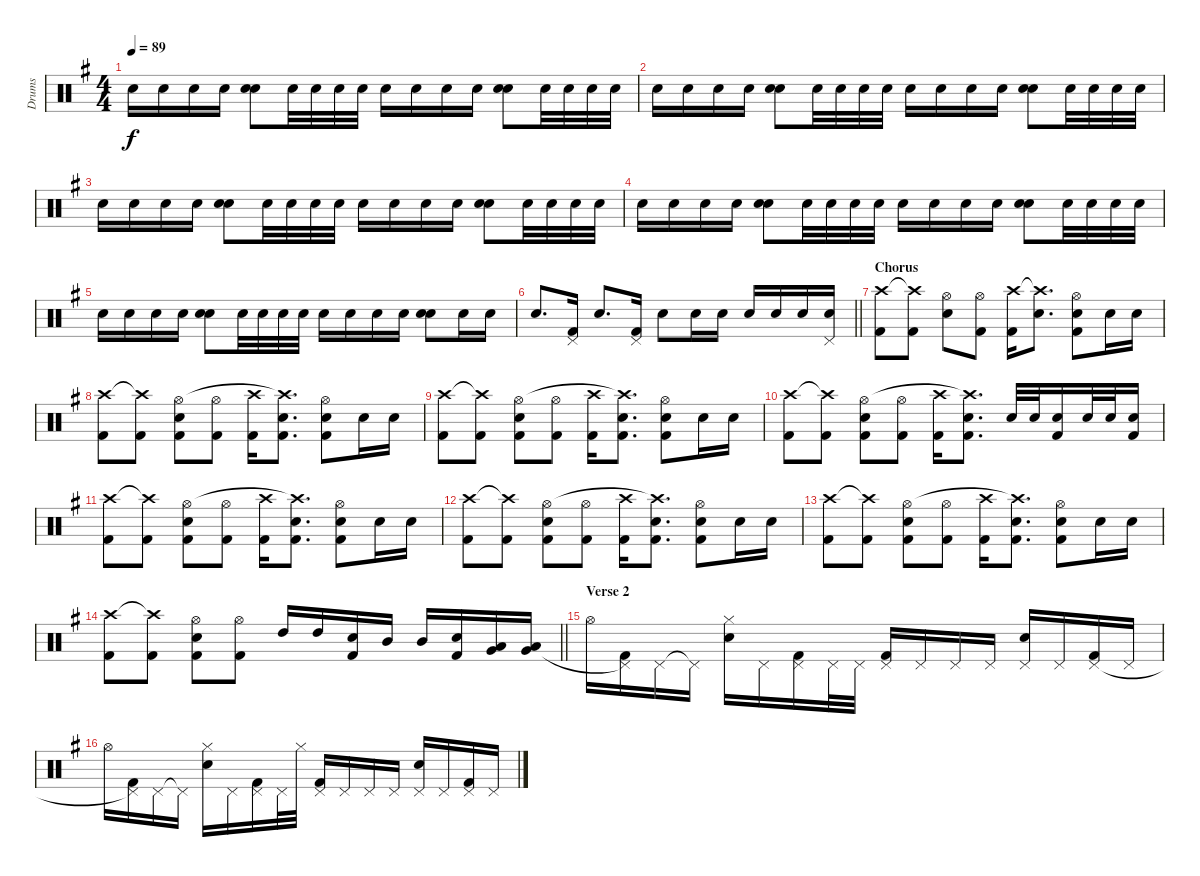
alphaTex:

\track ("Drums" "Drums") {instrument percussion}
\staff {score}
\articulation defaults
\ts (4 4)
\tempo 89
\clef neutral
\ks g "Electric Snare (hit)".16{dy f} "Electric Snare (hit)".16 "Electric Snare (hit)".16 "Electric Snare (hit)".16
("Electric Snare (hit)" "Electric Snare (hit)").8 "Electric Snare (hit)".32 "Electric Snare (hit)".32 "Electric Snare (hit)".32 "Electric Snare (hit)".32 "Electric Snare (hit)".16 "Electric Snare (hit)".16 "Electric Snare (hit)".16 "Electric Snare (hit)".16 ("Electric Snare (hit)" "Electric Snare (hit)").8 "Electric Snare (hit)".32 "Electric Snare (hit)".32 "Electric Snare (hit)".32 "Electric Snare (hit)".32 |
"Electric Snare (hit)".16 "Electric Snare (hit)".16 "Electric Snare (hit)".16 "Electric Snare (hit)".16 ("Electric Snare (hit)" "Electric Snare (hit)").8 "Electric Snare (hit)".32 "Electric Snare (hit)".32 "Electric Snare (hit)".32 "Electric Snare (hit)".32 "Electric Snare (hit)".16 "Electric Snare (hit)".16 "Electric Snare (hit)".16 "Electric Snare (hit)".16 ("Electric Snare (hit)" "Electric Snare (hit)").8 "Electric Snare (hit)".32 "Electric Snare (hit)".32 "Electric Snare (hit)".32 "Electric Snare (hit)".32 |
"Electric Snare (hit)".16 "Electric Snare (hit)".16 "Electric Snare (hit)".16 "Electric Snare (hit)".16 ("Electric Snare (hit)" "Electric Snare (hit)").8 "Electric Snare (hit)".32 "Electric Snare (hit)".32 "Electric Snare (hit)".32 "Electric Snare (hit)".32 "Electric Snare (hit)".16 "Electric Snare (hit)".16 "Electric Snare (hit)".16 "Electric Snare (hit)".16 ("Electric Snare (hit)" "Electric Snare (hit)").8 "Electric Snare (hit)".32 "Electric Snare (hit)".32 "Electric Snare (hit)".32 "Electric Snare (hit)".32 |
"Electric Snare (hit)".16 "Electric Snare (hit)".16 "Electric Snare (hit)".16 "Electric Snare (hit)".16 ("Electric Snare (hit)" "Electric Snare (hit)").8 "Electric Snare (hit)".32 "Electric Snare (hit)".32 "Electric Snare (hit)".32 "Electric Snare (hit)".32 "Electric Snare (hit)".16 "Electric Snare (hit)".16 "Electric Snare (hit)".16 "Electric Snare (hit)".16 ("Electric Snare (hit)" "Electric Snare (hit)").8 "Electric Snare (hit)".32 "Electric Snare (hit)".32 "Electric Snare (hit)".32 "Electric Snare (hit)".32 |
"Electric Snare (hit)".16 "Electric Snare (hit)".16 "Electric Snare (hit)".16 "Electric Snare (hit)".16 ("Electric Snare (hit)" "Electric Snare (hit)").8 "Electric Snare (hit)".32 "Electric Snare (hit)".32 "Electric Snare (hit)".32 "Electric Snare (hit)".32 "Electric Snare (hit)".16 "Electric Snare (hit)".16 "Electric Snare (hit)".16 "Electric Snare (hit)".16 ("Electric Snare (hit)" "Electric Snare (hit)").8 "Electric Snare (hit)".16 "Electric Snare (hit)".16 |
\barLineRight lightlight "Electric Snare (hit)".8{d}
("Kick (hit) 2" "Pedal Hi-Hat (hit)").16 "Electric Snare (hit)".8{d} ("Kick (hit) 2" "Pedal Hi-Hat (hit)").16 "Electric Snare (hit)".8 "Electric Snare (hit)".16 "Electric Snare (hit)".16 "Electric Snare (hit)".16 "Electric Snare (hit)".16 "Electric Snare (hit)".16 ("Electric Snare (hit)" "Pedal Hi-Hat (hit)").16 |
\section ("" "Chorus")
("Kick (hit) 2" "Crash high (hit)").8 ("Kick (hit) 2" "Crash high (hit)"{t}).8 ("Electric Snare (hit)" "Hi-Hat (open)").8 ("Kick (hit) 2" "Hi-Hat (open)").8 ("Kick (hit) 2" "Crash high (hit)").16 ("Electric Snare (hit)" "Crash high (hit)"{t}).8{d} ("Kick (hit) 2" "Electric Snare (hit)" "Hi-Hat (open)").8 "Electric Snare (hit)".16 "Electric Snare (hit)".16 |
("Kick (hit) 2" "Crash high (hit)").8 ("Kick (hit) 2" "Crash high (hit)"{t}).8 ("Kick (hit) 2" "Electric Snare (hit)" "Hi-Hat (open)").8 ("Kick (hit) 2" "Hi-Hat (open)").8 ("Kick (hit) 2" "Crash high (hit)").16 ("Kick (hit) 2" "Electric Snare (hit)" "Crash high (hit)"{t}).8{d} ("Kick (hit) 2" "Electric Snare (hit)" "Hi-Hat (open)").8 "Electric Snare (hit)".16 "Electric Snare (hit)".16 |
("Kick (hit) 2" "Crash high (hit)").8 ("Kick (hit) 2" "Crash high (hit)"{t}).8 ("Kick (hit) 2" "Electric Snare (hit)" "Hi-Hat (open)").8 ("Kick (hit) 2" "Hi-Hat (open)").8 ("Kick (hit) 2" "Crash high (hit)").16 ("Kick (hit) 2" "Electric Snare (hit)" "Crash high (hit)"{t}).8{d} ("Kick (hit) 2" "Electric Snare (hit)" "Hi-Hat (open)").8 "Electric Snare (hit)".16 "Electric Snare (hit)".16 |
("Kick (hit) 2" "Crash high (hit)").8 ("Kick (hit) 2" "Crash high (hit)"{t}).8 ("Kick (hit) 2" "Electric Snare (hit)" "Hi-Hat (open)").8 ("Kick (hit) 2" "Hi-Hat (open)").8 ("Kick (hit) 2" "Crash high (hit)").16 ("Kick (hit) 2" "Electric Snare (hit)" "Crash high (hit)"{t}).8{d} "Electric Snare (hit)".32 "Electric Snare (hit)".32 ("Kick (hit) 2" "Electric Snare (hit)").16 "Electric Snare (hit)".32 "Electric Snare (hit)".32 ("Kick (hit) 2" "Electric Snare (hit)").16 |
("Kick (hit) 2" "Crash high (hit)").8 ("Kick (hit) 2" "Crash high (hit)"{t}).8 ("Kick (hit) 2" "Electric Snare (hit)" "Hi-Hat (open)").8 ("Kick (hit) 2" "Hi-Hat (open)").8 ("Kick (hit) 2" "Crash high (hit)").16 ("Kick (hit) 2" "Electric Snare (hit)" "Crash high (hit)"{t}).8{d} ("Kick (hit) 2" "Electric Snare (hit)" "Hi-Hat (open)").8 "Electric Snare (hit)".16 "Electric Snare (hit)".16 |
("Kick (hit) 2" "Crash high (hit)").8 ("Kick (hit) 2" "Crash high (hit)"{t}).8 ("Kick (hit) 2" "Electric Snare (hit)" "Hi-Hat (open)").8 ("Kick (hit) 2" "Hi-Hat (open)").8 ("Kick (hit) 2" "Crash high (hit)").16 ("Kick (hit) 2" "Electric Snare (hit)" "Crash high (hit)"{t}).8{d} ("Kick (hit) 2" "Electric Snare (hit)" "Hi-Hat (open)").8 "Electric Snare (hit)".16 "Electric Snare (hit)".16 |
("Kick (hit) 2" "Crash high (hit)").8 ("Kick (hit) 2" "Crash high (hit)"{t}).8 ("Kick (hit) 2" "Electric Snare (hit)" "Hi-Hat (open)").8 ("Kick (hit) 2" "Hi-Hat (open)").8 ("Kick (hit) 2" "Crash high (hit)").16 ("Kick (hit) 2" "Electric Snare (hit)" "Crash high (hit)"{t}).8{d} ("Kick (hit) 2" "Electric Snare (hit)" "Hi-Hat (open)").8 "Electric Snare (hit)".16 "Electric Snare (hit)".16 |
\barLineRight lightlight
("Kick (hit) 2" "Crash high (hit)").8 ("Kick (hit) 2" "Crash high (hit)"{t}).8 ("Kick (hit) 2" "Electric Snare (hit)" "Hi-Hat (open)").8 ("Kick (hit) 2" "Hi-Hat (open)").8 "High Tom (hit)".16 "High Tom (hit)".16 ("Kick (hit) 2" "Electric Snare (hit)").16 "Mid Tom (hit)".16 "Mid Tom (hit)".16 ("Kick (hit) 2" "Electric Snare (hit)").16 ("Low Tom (hit)" "Very Low Tom (hit)").16 ("Low Tom (hit)" "Very Low Tom (hit)").16 |
\section ("" "Verse 2")
"Hi-Hat (open)".16 ("Kick (hit) 2" "Pedal Hi-Hat (hit)"{t}).16 "Pedal Hi-Hat (hit)".16 "Pedal Hi-Hat (hit)"{t}.16 ("Electric Snare (hit)" "Hi-Hat (closed)").16 "Pedal Hi-Hat (hit)".16 ("Kick (hit) 2" "Pedal Hi-Hat (hit)").16 "Pedal Hi-Hat (hit)".32 "Pedal Hi-Hat (hit)".32 ("Kick (hit) 2" "Pedal Hi-Hat (hit)").16 "Pedal Hi-Hat (hit)".16 "Pedal Hi-Hat (hit)".16 "Pedal Hi-Hat (hit)".16 ("Electric Snare (hit)" "Pedal Hi-Hat (hit)").16 "Pedal Hi-Hat (hit)".16 ("Kick (hit) 2" "Pedal Hi-Hat (hit)").16 "Pedal Hi-Hat (hit)".16 |
"Hi-Hat (open)".16 ("Kick (hit) 2" "Pedal Hi-Hat (hit)"{t}).16 "Pedal Hi-Hat (hit)".16 "Pedal Hi-Hat (hit)"{t}.16 ("Electric Snare (hit)" "Hi-Hat (closed)").16 "Pedal Hi-Hat (hit)".16 ("Kick (hit) 2" "Pedal Hi-Hat (hit)").16 "Pedal Hi-Hat (hit)".32 "Hi-Hat (closed)".32 ("Kick (hit) 2" "Pedal Hi-Hat (hit)").16 "Pedal Hi-Hat (hit)".16 "Pedal Hi-Hat (hit)".16 "Pedal Hi-Hat (hit)".16 ("Electric Snare (hit)" "Pedal Hi-Hat (hit)").16 "Pedal Hi-Hat (hit)".16 ("Kick (hit) 2" "Pedal Hi-Hat (hit)").16 "Pedal Hi-Hat (hit)".16
